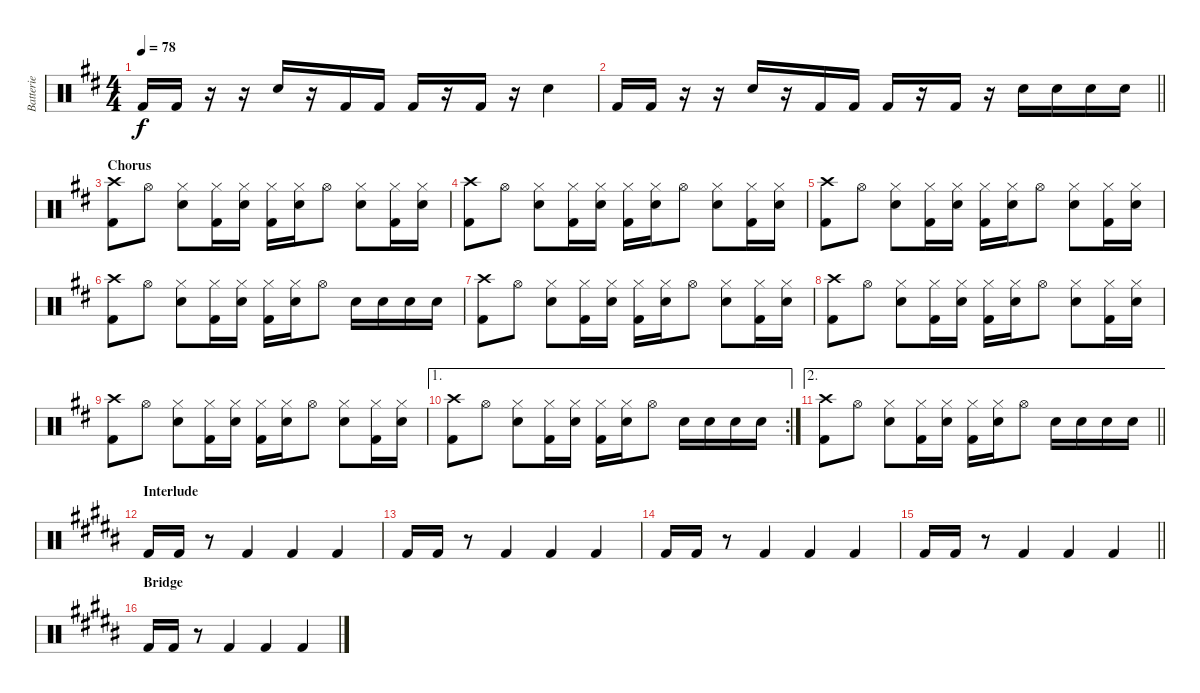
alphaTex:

\track ("Batterie" "Batterie") {instrument percussion}
\staff {score}
\articulation defaults
\ts (4 4)
\tempo 78
\clef neutral
\ks d "Kick (hit) 2".16{dy f} "Kick (hit) 2".16
r.16 r.16 "Snare (hit) 2".16 r.16 "Kick (hit) 2".16 "Kick (hit) 2".16 "Kick (hit) 2".16 r.16 "Kick (hit) 2".16 r.16 "Snare (hit) 2".4 |
\barLineRight lightlight "Kick (hit) 2".16 "Kick (hit) 2".16
r.16 r.16 "Snare (hit) 2".16 r.16 "Kick (hit) 2".16 "Kick (hit) 2".16 "Kick (hit) 2".16 r.16 "Kick (hit) 2".16 r.16 "Snare (hit) 2".16 "Snare (hit) 2".16 "Snare (hit) 2".16 "Snare (hit) 2".16 |
\section ("" "Chorus")
("Crash high (hit)" "Kick (hit) 2").8 "Hi-Hat (open)".8 ("Hi-Hat (closed)" "Snare (hit) 2").8 ("Hi-Hat (closed)" "Kick (hit) 2").16 ("Hi-Hat (closed)" "Snare (hit) 2").16 ("Hi-Hat (closed)" "Kick (hit) 2").16 ("Hi-Hat (closed)" "Snare (hit) 2").16 "Hi-Hat (open)".8 ("Hi-Hat (closed)" "Snare (hit) 2").8 ("Hi-Hat (closed)" "Kick (hit) 2").16 ("Hi-Hat (closed)" "Snare (hit) 2").16 |
("Crash high (hit)" "Kick (hit) 2").8 "Hi-Hat (open)".8 ("Hi-Hat (closed)" "Snare (hit) 2").8 ("Hi-Hat (closed)" "Kick (hit) 2").16 ("Hi-Hat (closed)" "Snare (hit) 2").16 ("Hi-Hat (closed)" "Kick (hit) 2").16 ("Hi-Hat (closed)" "Snare (hit) 2").16 "Hi-Hat (open)".8 ("Hi-Hat (closed)" "Snare (hit) 2").8 ("Hi-Hat (closed)" "Kick (hit) 2").16 ("Hi-Hat (closed)" "Snare (hit) 2").16 |
("Crash high (hit)" "Kick (hit) 2").8 "Hi-Hat (open)".8 ("Hi-Hat (closed)" "Snare (hit) 2").8 ("Hi-Hat (closed)" "Kick (hit) 2").16 ("Hi-Hat (closed)" "Snare (hit) 2").16 ("Hi-Hat (closed)" "Kick (hit) 2").16 ("Hi-Hat (closed)" "Snare (hit) 2").16 "Hi-Hat (open)".8 ("Hi-Hat (closed)" "Snare (hit) 2").8 ("Hi-Hat (closed)" "Kick (hit) 2").16 ("Hi-Hat (closed)" "Snare (hit) 2").16 |
("Crash high (hit)" "Kick (hit) 2").8 "Hi-Hat (open)".8 ("Hi-Hat (closed)" "Snare (hit) 2").8 ("Hi-Hat (closed)" "Kick (hit) 2").16 ("Hi-Hat (closed)" "Snare (hit) 2").16 ("Hi-Hat (closed)" "Kick (hit) 2").16 ("Hi-Hat (closed)" "Snare (hit) 2").16 "Hi-Hat (open)".8 "Snare (hit) 2".16 "Snare (hit) 2".16 "Snare (hit) 2".16 "Snare (hit) 2".16 |
("Crash high (hit)" "Kick (hit) 2").8 "Hi-Hat (open)".8 ("Hi-Hat (closed)" "Snare (hit) 2").8 ("Hi-Hat (closed)" "Kick (hit) 2").16 ("Hi-Hat (closed)" "Snare (hit) 2").16 ("Hi-Hat (closed)" "Kick (hit) 2").16 ("Hi-Hat (closed)" "Snare (hit) 2").16 "Hi-Hat (open)".8 ("Hi-Hat (closed)" "Snare (hit) 2").8 ("Hi-Hat (closed)" "Kick (hit) 2").16 ("Hi-Hat (closed)" "Snare (hit) 2").16 |
("Crash high (hit)" "Kick (hit) 2").8 "Hi-Hat (open)".8 ("Hi-Hat (closed)" "Snare (hit) 2").8 ("Hi-Hat (closed)" "Kick (hit) 2").16 ("Hi-Hat (closed)" "Snare (hit) 2").16 ("Hi-Hat (closed)" "Kick (hit) 2").16 ("Hi-Hat (closed)" "Snare (hit) 2").16 "Hi-Hat (open)".8 ("Hi-Hat (closed)" "Snare (hit) 2").8 ("Hi-Hat (closed)" "Kick (hit) 2").16 ("Hi-Hat (closed)" "Snare (hit) 2").16 |
("Crash high (hit)" "Kick (hit) 2").8 "Hi-Hat (open)".8 ("Hi-Hat (closed)" "Snare (hit) 2").8 ("Hi-Hat (closed)" "Kick (hit) 2").16 ("Hi-Hat (closed)" "Snare (hit) 2").16 ("Hi-Hat (closed)" "Kick (hit) 2").16 ("Hi-Hat (closed)" "Snare (hit) 2").16 "Hi-Hat (open)".8 ("Hi-Hat (closed)" "Snare (hit) 2").8 ("Hi-Hat (closed)" "Kick (hit) 2").16 ("Hi-Hat (closed)" "Snare (hit) 2").16 |
\ae 1
\rc 2
("Crash high (hit)" "Kick (hit) 2").8 "Hi-Hat (open)".8 ("Hi-Hat (closed)" "Snare (hit) 2").8 ("Hi-Hat (closed)" "Kick (hit) 2").16 ("Hi-Hat (closed)" "Snare (hit) 2").16 ("Hi-Hat (closed)" "Kick (hit) 2").16 ("Hi-Hat (closed)" "Snare (hit) 2").16 "Hi-Hat (open)".8 "Snare (hit) 2".16 "Snare (hit) 2".16 "Snare (hit) 2".16 "Snare (hit) 2".16 |
\ae 2
\barLineRight lightlight
("Crash high (hit)" "Kick (hit) 2").8 "Hi-Hat (open)".8 ("Hi-Hat (closed)" "Snare (hit) 2").8 ("Hi-Hat (closed)" "Kick (hit) 2").16 ("Hi-Hat (closed)" "Snare (hit) 2").16 ("Hi-Hat (closed)" "Kick (hit) 2").16 ("Hi-Hat (closed)" "Snare (hit) 2").16 "Hi-Hat (open)".8 "Snare (hit) 2".16 "Snare (hit) 2".16 "Snare (hit) 2".16 "Snare (hit) 2".16 |
\section ("" "Interlude")
\ks b "Kick (hit) 2".16 "Kick (hit) 2".16
r.8 "Kick (hit) 2".4 "Kick (hit) 2".4 "Kick (hit) 2".4 |
"Kick (hit) 2".16 "Kick (hit) 2".16 r.8 "Kick (hit) 2".4 "Kick (hit) 2".4 "Kick (hit) 2".4 |
"Kick (hit) 2".16 "Kick (hit) 2".16 r.8 "Kick (hit) 2".4 "Kick (hit) 2".4 "Kick (hit) 2".4 |
\barLineRight lightlight "Kick (hit) 2".16 "Kick (hit) 2".16
r.8 "Kick (hit) 2".4 "Kick (hit) 2".4 "Kick (hit) 2".4 |
\section ("" "Bridge")
"Kick (hit) 2".16 "Kick (hit) 2".16 r.8 "Kick (hit) 2".4 "Kick (hit) 2".4 "Kick (hit) 2".4
